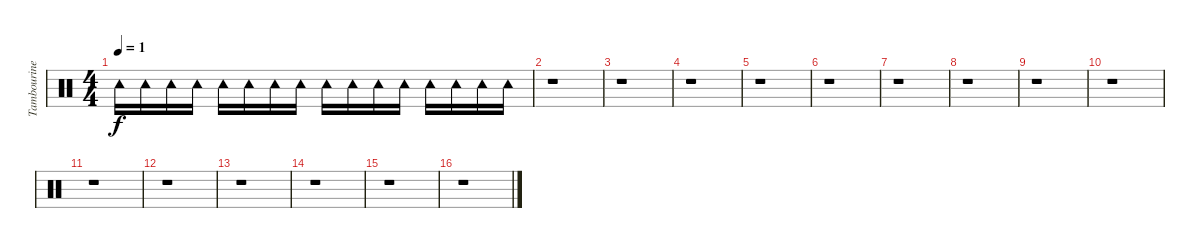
\track ("Tambourine" "Tambourine") {instrument percussion}
\staff {score}
\articulation defaults
\ts (4 4)
\tempo 1
\clef neutral
\ks c "Tambourine (hit)".16{dy f} "Tambourine (hit)".16 "Tambourine (hit)".16 "Tambourine (hit)".16 "Tambourine (hit)".16 "Tambourine (hit)".16 "Tambourine (hit)".16 "Tambourine (hit)".16 "Tambourine (hit)".16 "Tambourine (hit)".16 "Tambourine (hit)".16 "Tambourine (hit)".16 "Tambourine (hit)".16 "Tambourine (hit)".16 "Tambourine (hit)".16 "Tambourine (hit)".16
|
r.1 |
r.1 |
r.1 |
r.1 |
r.1 |
r.1 |
r.1 |
r.1 |
r.1 |
r.1 |
r.1 |
r.1 |
r.1 |
r.1 |
r.1
